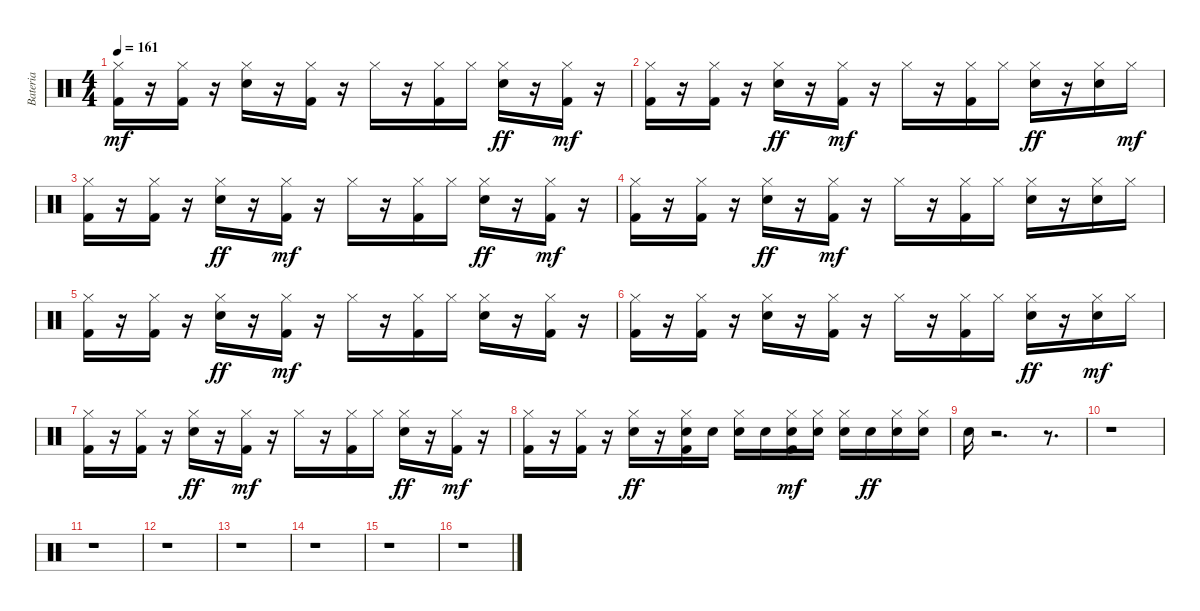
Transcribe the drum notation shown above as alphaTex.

\track ("Bateria" "Bateria") {instrument percussion}
\staff {score}
\articulation defaults
\ts (4 4)
\tempo 161
\clef neutral
\ks c
("Hi-Hat (closed)" "Kick (hit) 2").16{dy mf} r.16 ("Kick (hit) 2" "Hi-Hat (closed)").16 r.16 ("Electric Snare (hit)" "Hi-Hat (closed)").16 r.16 ("Hi-Hat (closed)" "Kick (hit) 2").16 r.16 "Hi-Hat (closed)".16 r.16 ("Hi-Hat (closed)" "Kick (hit) 2").16 "Hi-Hat (closed)".16 ("Hi-Hat (closed)" "Electric Snare (hit)").16{dy ff} r.16 ("Kick (hit) 2" "Hi-Hat (closed)").16{dy mf} r.16 |
("Kick (hit) 2" "Hi-Hat (closed)").16 r.16 ("Kick (hit) 2" "Hi-Hat (closed)").16 r.16 ("Hi-Hat (closed)" "Electric Snare (hit)").16{dy ff} r.16 ("Hi-Hat (closed)" "Kick (hit) 2").16{dy mf} r.16 "Hi-Hat (closed)".16 r.16 ("Hi-Hat (closed)" "Kick (hit) 2").16 "Hi-Hat (closed)".16 ("Hi-Hat (closed)" "Electric Snare (hit)").16{dy ff} r.16 ("Hi-Hat (closed)" "Electric Snare (hit)").16 "Hi-Hat (closed)".16{dy mf} |
("Kick (hit) 2" "Hi-Hat (closed)").16 r.16 ("Kick (hit) 2" "Hi-Hat (closed)").16 r.16 ("Hi-Hat (closed)" "Electric Snare (hit)").16{dy ff} r.16 ("Hi-Hat (closed)" "Kick (hit) 2").16{dy mf} r.16 "Hi-Hat (closed)".16 r.16 ("Kick (hit) 2" "Hi-Hat (closed)").16 "Hi-Hat (closed)".16 ("Hi-Hat (closed)" "Electric Snare (hit)").16{dy ff} r.16 ("Kick (hit) 2" "Hi-Hat (closed)").16{dy mf} r.16 |
("Kick (hit) 2" "Hi-Hat (closed)").16 r.16 ("Kick (hit) 2" "Hi-Hat (closed)").16 r.16 ("Hi-Hat (closed)" "Electric Snare (hit)").16{dy ff} r.16 ("Hi-Hat (closed)" "Kick (hit) 2").16{dy mf} r.16 "Hi-Hat (closed)".16 r.16 ("Hi-Hat (closed)" "Kick (hit) 2").16 "Hi-Hat (closed)".16 ("Electric Snare (hit)" "Hi-Hat (closed)").16 r.16 ("Electric Snare (hit)" "Hi-Hat (closed)").16 "Hi-Hat (closed)".16 |
("Hi-Hat (closed)" "Kick (hit) 2").16 r.16 ("Kick (hit) 2" "Hi-Hat (closed)").16 r.16 ("Hi-Hat (closed)" "Electric Snare (hit)").16{dy ff} r.16 ("Hi-Hat (closed)" "Kick (hit) 2").16{dy mf} r.16 "Hi-Hat (closed)".16 r.16 ("Hi-Hat (closed)" "Kick (hit) 2").16 "Hi-Hat (closed)".16 ("Electric Snare (hit)" "Hi-Hat (closed)").16 r.16 ("Kick (hit) 2" "Hi-Hat (closed)").16 r.16 |
("Kick (hit) 2" "Hi-Hat (closed)").16 r.16 ("Hi-Hat (closed)" "Kick (hit) 2").16 r.16 ("Electric Snare (hit)" "Hi-Hat (closed)").16 r.16 ("Kick (hit) 2" "Hi-Hat (closed)").16 r.16 "Hi-Hat (closed)".16 r.16 ("Hi-Hat (closed)" "Kick (hit) 2").16 "Hi-Hat (closed)".16 ("Hi-Hat (closed)" "Electric Snare (hit)").16{dy ff} r.16 ("Electric Snare (hit)" "Hi-Hat (closed)").16{dy mf} "Hi-Hat (closed)".16 |
("Kick (hit) 2" "Hi-Hat (closed)").16 r.16 ("Hi-Hat (closed)" "Kick (hit) 2").16 r.16 ("Hi-Hat (closed)" "Electric Snare (hit)").16{dy ff} r.16 ("Hi-Hat (closed)" "Kick (hit) 2").16{dy mf} r.16 "Hi-Hat (closed)".16 r.16 ("Hi-Hat (closed)" "Kick (hit) 2").16 "Hi-Hat (closed)".16 ("Hi-Hat (closed)" "Electric Snare (hit)").16{dy ff} r.16 ("Kick (hit) 2" "Hi-Hat (closed)").16{dy mf} r.16 |
("Kick (hit) 2" "Hi-Hat (closed)").16 r.16 ("Kick (hit) 2" "Hi-Hat (closed)").16 r.16 ("Hi-Hat (closed)" "Electric Snare (hit)").16{dy ff} r.16 ("Kick (hit) 2" "Hi-Hat (closed)" "Electric Snare (hit)").16 "Electric Snare (hit)".16 ("Hi-Hat (closed)" "Electric Snare (hit)").16 "Electric Snare (hit)".16 ("Electric Snare (hit)" "Kick (hit) 2" "Hi-Hat (closed)").16{dy mf} ("Electric Snare (hit)" "Hi-Hat (closed)").16 ("Electric Snare (hit)" "Hi-Hat (closed)").16 "Electric Snare (hit)".16{dy ff} ("Hi-Hat (closed)" "Electric Snare (hit)").16 ("Hi-Hat (closed)" "Electric Snare (hit)").16 |
"Electric Snare (hit)".16 r.2{d} r.8{d} |
r.1 |
r.1 |
r.1 |
r.1 |
r.1 |
r.1 |
r.1
